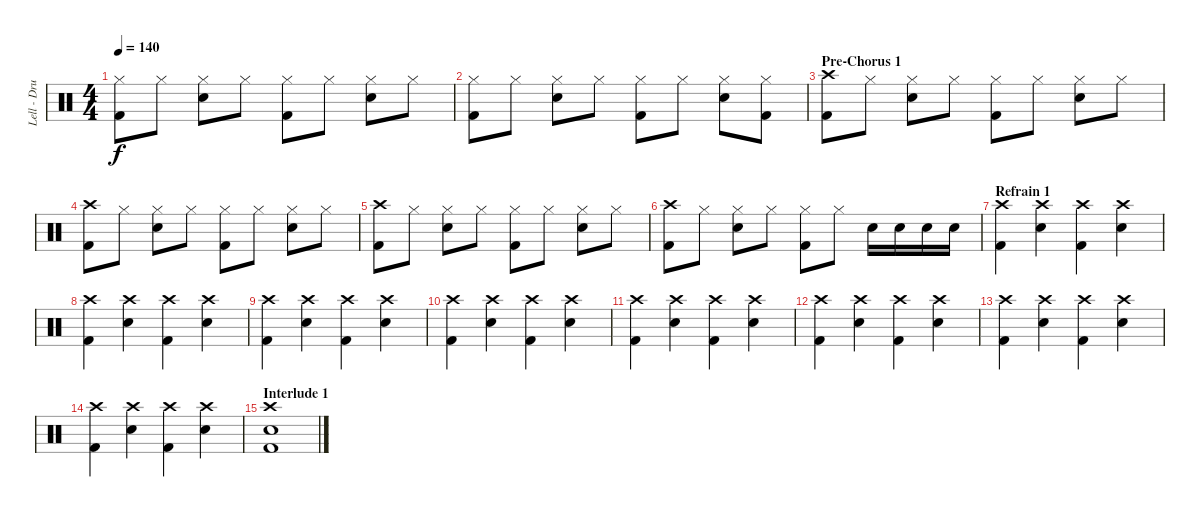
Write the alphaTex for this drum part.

\track ("Lell - Drums" "Lell - Dru") {instrument percussion}
\staff {score}
\articulation defaults
\ts (4 4)
\tempo 140
\clef neutral
\ks c
("Hi-Hat (closed)" "Kick (hit) 2").8{dy f} "Hi-Hat (closed)".8 ("Hi-Hat (closed)" "Snare (hit) 2").8 "Hi-Hat (closed)".8 ("Hi-Hat (closed)" "Kick (hit) 2").8 "Hi-Hat (closed)".8 ("Hi-Hat (closed)" "Snare (hit) 2").8 "Hi-Hat (closed)".8 |
("Hi-Hat (closed)" "Kick (hit) 2").8 "Hi-Hat (closed)".8 ("Hi-Hat (closed)" "Snare (hit) 2").8 "Hi-Hat (closed)".8 ("Hi-Hat (closed)" "Kick (hit) 2").8 "Hi-Hat (closed)".8 ("Hi-Hat (closed)" "Snare (hit) 2").8 ("Hi-Hat (closed)" "Kick (hit) 2").8 |
\section ("" "Pre-Chorus 1")
("Crash high (hit)" "Kick (hit) 2").8 "Hi-Hat (closed)".8 ("Hi-Hat (closed)" "Snare (hit) 2").8 "Hi-Hat (closed)".8 ("Hi-Hat (closed)" "Kick (hit) 2").8 "Hi-Hat (closed)".8 ("Hi-Hat (closed)" "Snare (hit) 2").8 "Hi-Hat (closed)".8 |
("Crash high (hit)" "Kick (hit) 2").8 "Hi-Hat (closed)".8 ("Hi-Hat (closed)" "Snare (hit) 2").8 "Hi-Hat (closed)".8 ("Hi-Hat (closed)" "Kick (hit) 2").8 "Hi-Hat (closed)".8 ("Hi-Hat (closed)" "Snare (hit) 2").8 "Hi-Hat (closed)".8 |
("Crash high (hit)" "Kick (hit) 2").8 "Hi-Hat (closed)".8 ("Hi-Hat (closed)" "Snare (hit) 2").8 "Hi-Hat (closed)".8 ("Hi-Hat (closed)" "Kick (hit) 2").8 "Hi-Hat (closed)".8 ("Hi-Hat (closed)" "Snare (hit) 2").8 "Hi-Hat (closed)".8 |
("Crash high (hit)" "Kick (hit) 2").8 "Hi-Hat (closed)".8 ("Hi-Hat (closed)" "Snare (hit) 2").8 "Hi-Hat (closed)".8 ("Hi-Hat (closed)" "Kick (hit) 2").8 "Hi-Hat (closed)".8 "Snare (hit) 2".16 "Snare (hit) 2".16 "Snare (hit) 2".16 "Snare (hit) 2".16 |
\section ("" "Refrain 1")
("Crash high (hit)" "Kick (hit) 2").4 ("Crash high (hit)" "Snare (hit) 2").4 ("Crash high (hit)" "Kick (hit) 2").4 ("Crash high (hit)" "Snare (hit) 2").4 |
("Crash high (hit)" "Kick (hit) 2").4 ("Crash high (hit)" "Snare (hit) 2").4 ("Crash high (hit)" "Kick (hit) 2").4 ("Crash high (hit)" "Snare (hit) 2").4 |
("Crash high (hit)" "Kick (hit) 2").4 ("Crash high (hit)" "Snare (hit) 2").4 ("Crash high (hit)" "Kick (hit) 2").4 ("Crash high (hit)" "Snare (hit) 2").4 |
("Crash high (hit)" "Kick (hit) 2").4 ("Crash high (hit)" "Snare (hit) 2").4 ("Crash high (hit)" "Kick (hit) 2").4 ("Crash high (hit)" "Snare (hit) 2").4 |
("Crash high (hit)" "Kick (hit) 2").4 ("Crash high (hit)" "Snare (hit) 2").4 ("Crash high (hit)" "Kick (hit) 2").4 ("Crash high (hit)" "Snare (hit) 2").4 |
("Crash high (hit)" "Kick (hit) 2").4 ("Crash high (hit)" "Snare (hit) 2").4 ("Crash high (hit)" "Kick (hit) 2").4 ("Crash high (hit)" "Snare (hit) 2").4 |
("Crash high (hit)" "Kick (hit) 2").4 ("Crash high (hit)" "Snare (hit) 2").4 ("Crash high (hit)" "Kick (hit) 2").4 ("Crash high (hit)" "Snare (hit) 2").4 |
("Crash high (hit)" "Kick (hit) 2").4 ("Crash high (hit)" "Snare (hit) 2").4 ("Crash high (hit)" "Kick (hit) 2").4 ("Crash high (hit)" "Snare (hit) 2").4 |
\section ("" "Interlude 1")
("Crash high (hit)" "Snare (hit) 2" "Kick (hit) 2").1
